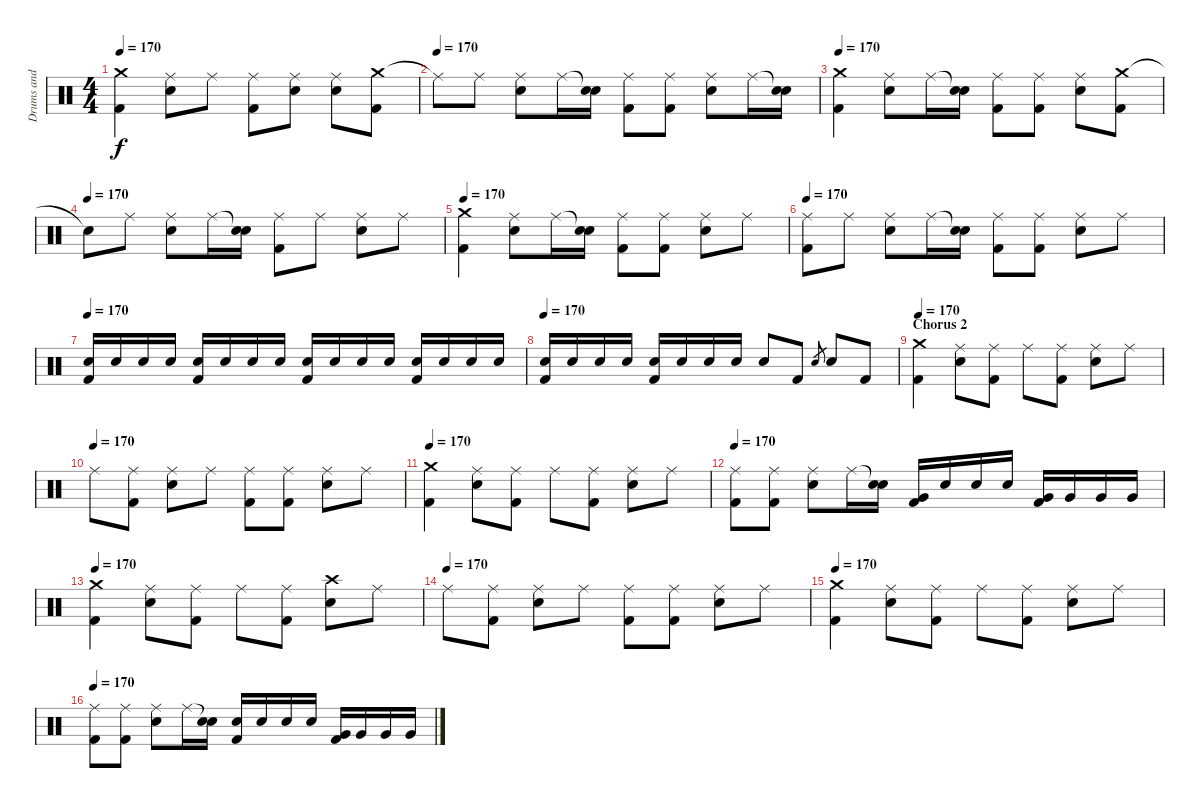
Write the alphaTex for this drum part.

\track ("Drums and Percussion" "Drums and ") {instrument percussion}
\staff {score}
\articulation defaults
\ts (4 4)
\tempo 170
\clef neutral
\ks c
("Crash medium (hit)" "Kick (hit) 2").4{dy f} ("Ride (middle)" "Electric Snare (hit)").8 "Ride (middle)".8 ("Ride (middle)" "Kick (hit) 2").8 ("Ride (middle)" "Electric Snare (hit)").8 ("Ride (middle)" "Electric Snare (hit)").8 ("Crash medium (hit)" "Kick (hit) 2").8 |
\tempo (170)
"Ride (middle)"{t}.8 "Ride (middle)".8 ("Ride (middle)" "Electric Snare (hit)").8 "Ride (middle)".16 ("Snare (hit)"{t} "Electric Snare (hit)").16 ("Ride (middle)" "Kick (hit) 2").8 ("Ride (middle)" "Kick (hit) 2").8 ("Ride (middle)" "Electric Snare (hit)").8 "Ride (middle)".16 ("Snare (hit)"{t} "Electric Snare (hit)").16 |
\tempo 170
("Crash medium (hit)" "Kick (hit) 2").4 ("Ride (middle)" "Electric Snare (hit)").8 "Ride (middle)".16 ("Snare (hit)"{t} "Electric Snare (hit)").16 ("Ride (middle)" "Kick (hit) 2").8 ("Ride (middle)" "Kick (hit) 2").8 ("Ride (middle)" "Electric Snare (hit)").8 ("Crash medium (hit)" "Kick (hit) 2").8 |
\tempo (170)
"Snare (hit)"{t}.8 "Ride (middle)".8 ("Ride (middle)" "Electric Snare (hit)").8 "Ride (middle)".16 ("Snare (hit)"{t} "Electric Snare (hit)").16 ("Ride (middle)" "Kick (hit) 2").8 "Ride (middle)".8 ("Ride (middle)" "Electric Snare (hit)").8 "Ride (middle)".8 |
\tempo 170
("Crash medium (hit)" "Kick (hit) 2").4 ("Ride (middle)" "Electric Snare (hit)").8 "Ride (middle)".16 ("Snare (hit)"{t} "Electric Snare (hit)").16 ("Ride (middle)" "Kick (hit) 2").8 ("Ride (middle)" "Kick (hit) 2").8 ("Ride (middle)" "Electric Snare (hit)").8 "Ride (middle)".8 |
\tempo 170
("Ride (middle)" "Kick (hit) 2").8 "Ride (middle)".8 ("Ride (middle)" "Electric Snare (hit)").8 "Ride (middle)".16 ("Snare (hit)"{t} "Electric Snare (hit)").16 ("Ride (middle)" "Kick (hit) 2").8 ("Ride (middle)" "Kick (hit) 2").8 ("Ride (middle)" "Electric Snare (hit)").8 "Ride (middle)".8 |
\tempo 170
("Electric Snare (hit)" "Kick (hit) 2").16 "Electric Snare (hit)".16 "Electric Snare (hit)".16 "Electric Snare (hit)".16 ("Electric Snare (hit)" "Kick (hit) 2").16 "Electric Snare (hit)".16 "Electric Snare (hit)".16 "Electric Snare (hit)".16 ("Electric Snare (hit)" "Kick (hit) 2").16 "Electric Snare (hit)".16 "Electric Snare (hit)".16 "Electric Snare (hit)".16 ("Electric Snare (hit)" "Kick (hit) 2").16 "Electric Snare (hit)".16 "Electric Snare (hit)".16 "Electric Snare (hit)".16 |
\tempo 170
("Electric Snare (hit)" "Kick (hit) 2").16 "Electric Snare (hit)".16 "Electric Snare (hit)".16 "Electric Snare (hit)".16 ("Electric Snare (hit)" "Kick (hit) 2").16 "Electric Snare (hit)".16 "Electric Snare (hit)".16 "Electric Snare (hit)".16 "Electric Snare (hit)".8 "Kick (hit) 2".8 "Electric Snare (hit)".8{gr} "Electric Snare (hit)".8 "Kick (hit) 2".8 |
\section ("" "Chorus 2")
\tempo 170
("Crash medium (hit)" "Kick (hit) 2").4 ("Ride (middle)" "Electric Snare (hit)").8 ("Ride (middle)" "Kick (hit) 2").8 "Ride (middle)".8 ("Ride (middle)" "Kick (hit) 2").8 ("Ride (middle)" "Electric Snare (hit)").8 "Ride (middle)".8 |
\tempo (170)
"Ride (middle)".8 ("Ride (middle)" "Kick (hit) 2").8 ("Ride (middle)" "Electric Snare (hit)").8 "Ride (middle)".8 ("Ride (middle)" "Kick (hit) 2").8 ("Ride (middle)" "Kick (hit) 2").8 ("Ride (middle)" "Electric Snare (hit)").8 "Ride (middle)".8 |
\tempo 170
("Crash medium (hit)" "Kick (hit) 2").4 ("Ride (middle)" "Electric Snare (hit)").8 ("Ride (middle)" "Kick (hit) 2").8 "Ride (middle)".8 ("Ride (middle)" "Kick (hit) 2").8 ("Ride (middle)" "Electric Snare (hit)").8 "Ride (middle)".8 |
\tempo 170
("Ride (middle)" "Kick (hit) 2").8 ("Ride (middle)" "Kick (hit) 2").8 ("Ride (middle)" "Electric Snare (hit)").8 "Ride (middle)".16 ("Snare (hit)"{t} "Electric Snare (hit)").16 ("Very Low Tom (hit)" "Kick (hit) 2").16 "Electric Snare (hit)".16 "Electric Snare (hit)".16 "Electric Snare (hit)".16 ("Very Low Tom (hit)" "Kick (hit) 2").16 "Very Low Tom (hit)".16 "Very Low Tom (hit)".16 "Very Low Tom (hit)".16 |
\tempo 170
("Crash medium (hit)" "Kick (hit) 2").4 ("Ride (middle)" "Electric Snare (hit)").8 ("Ride (middle)" "Kick (hit) 2").8 "Ride (middle)".8 ("Ride (middle)" "Kick (hit) 2").8 ("Crash high (hit)" "Electric Snare (hit)").8 "Ride (middle)".8 |
\tempo (170)
"Ride (middle)".8 ("Ride (middle)" "Kick (hit) 2").8 ("Ride (middle)" "Electric Snare (hit)").8 "Ride (middle)".8 ("Ride (middle)" "Kick (hit) 2").8 ("Ride (middle)" "Kick (hit) 2").8 ("Ride (middle)" "Electric Snare (hit)").8 "Ride (middle)".8 |
\tempo 170
("Crash medium (hit)" "Kick (hit) 2").4 ("Ride (middle)" "Electric Snare (hit)").8 ("Ride (middle)" "Kick (hit) 2").8 "Ride (middle)".8 ("Ride (middle)" "Kick (hit) 2").8 ("Ride (middle)" "Electric Snare (hit)").8 "Ride (middle)".8 |
\tempo 170
("Ride (middle)" "Kick (hit) 2").8 ("Ride (middle)" "Kick (hit) 2").8 ("Ride (middle)" "Electric Snare (hit)").8 "Ride (middle)".16 ("Snare (hit)"{t} "Electric Snare (hit)").16 ("Electric Snare (hit)" "Kick (hit) 2").16 "Electric Snare (hit)".16 "Electric Snare (hit)".16 "Electric Snare (hit)".16 ("Very Low Tom (hit)" "Kick (hit) 2").16 "Very Low Tom (hit)".16 "Very Low Tom (hit)".16 "Very Low Tom (hit)".16
